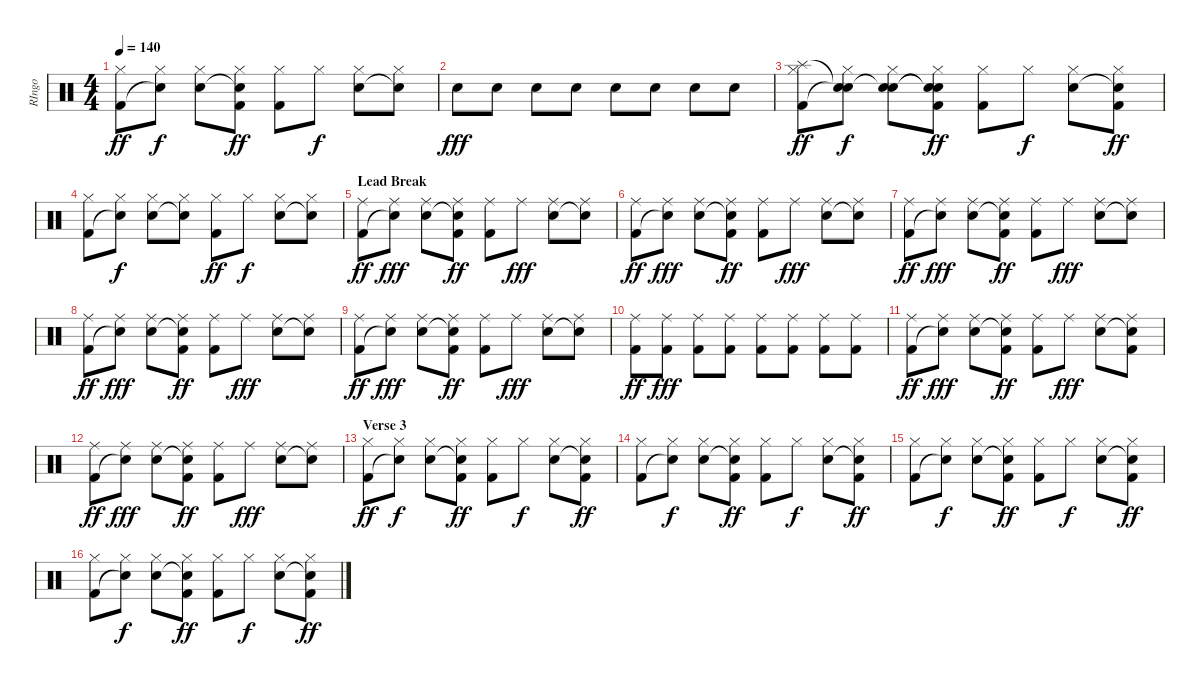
\track ("RIngo" "RIngo") {instrument percussion}
\staff {score}
\articulation defaults
\ts (4 4)
\tempo 140
\clef neutral
\ks c
("Hi-Hat (closed)" "Kick (hit) 2").8{dy ff} ("Hi-Hat (closed)" "Snare (hit)"{t}).8{dy f} ("Hi-Hat (closed)" "Snare (hit) 2").8 ("Hi-Hat (closed)" "Snare (hit)"{t} "Kick (hit) 2").8{dy ff} ("Hi-Hat (closed)" "Kick (hit) 2").8 "Hi-Hat (closed)".8{dy f} ("Hi-Hat (closed)" "Snare (hit) 2").8 ("Hi-Hat (closed)" "Snare (hit)"{t}).8 |
"Snare (hit) 2".8{dy fff} "Snare (hit) 2".8 "Snare (hit) 2".8 "Snare (hit) 2".8 "Snare (hit) 2".8 "Snare (hit) 2".8 "Snare (hit) 2".8 "Snare (hit) 2".8 |
("Splash (hit)" "Hi-Hat (closed)" "Kick (hit) 2").8{dy ff} ("Snare (hit)"{t} "Hi-Hat (closed)" "Snare (hit)"{t}).8{dy f} ("Snare (hit)"{t} "Hi-Hat (closed)" "Snare (hit) 2").8 ("Snare (hit)"{t} "Hi-Hat (closed)" "Snare (hit)"{t} "Kick (hit) 2").8{dy ff} ("Hi-Hat (closed)" "Kick (hit) 2").8 "Hi-Hat (closed)".8{dy f} ("Hi-Hat (closed)" "Snare (hit) 2").8 ("Hi-Hat (closed)" "Snare (hit)"{t} "Kick (hit) 2").8{dy ff} |
("Hi-Hat (closed)" "Kick (hit) 2").8 ("Hi-Hat (closed)" "Snare (hit)"{t}).8{dy f} ("Hi-Hat (closed)" "Snare (hit) 2").8 ("Hi-Hat (closed)" "Snare (hit)"{t}).8 ("Hi-Hat (closed)" "Kick (hit) 2").8{dy ff} "Hi-Hat (closed)".8{dy f} ("Hi-Hat (closed)" "Snare (hit) 2").8 ("Hi-Hat (closed)" "Snare (hit)"{t}).8 |
\section ("" "Lead Break")
("Ride (middle)" "Kick (hit) 2").8{dy ff} ("Ride (middle)" "Snare (hit)"{t}).8{dy fff} ("Ride (middle)" "Snare (hit) 2").8 ("Ride (middle)" "Snare (hit)"{t} "Kick (hit) 2").8{dy ff} ("Ride (middle)" "Kick (hit) 2").8 "Ride (middle)".8{dy fff} ("Ride (middle)" "Snare (hit) 2").8 ("Ride (middle)" "Snare (hit)"{t}).8 |
("Ride (middle)" "Kick (hit) 2").8{dy ff} ("Ride (middle)" "Snare (hit)"{t}).8{dy fff} ("Ride (middle)" "Snare (hit) 2").8 ("Ride (middle)" "Snare (hit)"{t} "Kick (hit) 2").8{dy ff} ("Ride (middle)" "Kick (hit) 2").8 "Ride (middle)".8{dy fff} ("Ride (middle)" "Snare (hit) 2").8 ("Ride (middle)" "Snare (hit)"{t}).8 |
("Ride (middle)" "Kick (hit) 2").8{dy ff} ("Ride (middle)" "Snare (hit)"{t}).8{dy fff} ("Ride (middle)" "Snare (hit) 2").8 ("Ride (middle)" "Snare (hit)"{t} "Kick (hit) 2").8{dy ff} ("Ride (middle)" "Kick (hit) 2").8 "Ride (middle)".8{dy fff} ("Ride (middle)" "Snare (hit) 2").8 ("Ride (middle)" "Snare (hit)"{t}).8 |
("Ride (middle)" "Kick (hit) 2").8{dy ff} ("Ride (middle)" "Snare (hit)"{t}).8{dy fff} ("Ride (middle)" "Snare (hit) 2").8 ("Ride (middle)" "Snare (hit)"{t} "Kick (hit) 2").8{dy ff} ("Ride (middle)" "Kick (hit) 2").8 "Ride (middle)".8{dy fff} ("Ride (middle)" "Snare (hit) 2").8 ("Ride (middle)" "Snare (hit)"{t}).8 |
("Ride (middle)" "Kick (hit) 2").8{dy ff} ("Ride (middle)" "Snare (hit)"{t}).8{dy fff} ("Ride (middle)" "Snare (hit) 2").8 ("Ride (middle)" "Snare (hit)"{t} "Kick (hit) 2").8{dy ff} ("Ride (middle)" "Kick (hit) 2").8 "Ride (middle)".8{dy fff} ("Ride (middle)" "Snare (hit) 2").8 ("Ride (middle)" "Snare (hit)"{t}).8 |
("Ride (middle)" "Kick (hit) 2").8{dy ff} ("Ride (middle)" "Kick (hit) 2").8{dy fff} ("Ride (middle)" "Kick (hit) 2").8 ("Ride (middle)" "Kick (hit) 2").8 ("Ride (middle)" "Kick (hit) 2").8 ("Ride (middle)" "Kick (hit) 2").8 ("Ride (middle)" "Kick (hit) 2").8 ("Ride (middle)" "Kick (hit) 2").8 |
("Ride (middle)" "Kick (hit) 2").8{dy ff} ("Ride (middle)" "Snare (hit)"{t}).8{dy fff} ("Ride (middle)" "Snare (hit) 2").8 ("Ride (middle)" "Snare (hit)"{t} "Kick (hit) 2").8{dy ff} ("Ride (middle)" "Kick (hit) 2").8 "Ride (middle)".8{dy fff} ("Ride (middle)" "Snare (hit) 2").8 ("Ride (middle)" "Snare (hit)"{t} "Kick (hit) 2").8 |
("Ride (middle)" "Kick (hit) 2").8{dy ff} ("Ride (middle)" "Snare (hit)"{t}).8{dy fff} ("Ride (middle)" "Snare (hit) 2").8 ("Ride (middle)" "Snare (hit)"{t} "Kick (hit) 2").8{dy ff} ("Ride (middle)" "Kick (hit) 2").8 "Ride (middle)".8{dy fff} ("Ride (middle)" "Snare (hit) 2").8 ("Ride (middle)" "Snare (hit)"{t}).8 |
\section ("" "Verse 3")
("Hi-Hat (closed)" "Kick (hit) 2").8{dy ff} ("Hi-Hat (closed)" "Snare (hit)"{t}).8{dy f} ("Hi-Hat (closed)" "Snare (hit) 2").8 ("Hi-Hat (closed)" "Snare (hit)"{t} "Kick (hit) 2").8{dy ff} ("Hi-Hat (closed)" "Kick (hit) 2").8 "Hi-Hat (closed)".8{dy f} ("Hi-Hat (closed)" "Snare (hit) 2").8 ("Hi-Hat (closed)" "Snare (hit)"{t} "Kick (hit) 2").8{dy ff} |
("Hi-Hat (closed)" "Kick (hit) 2").8 ("Hi-Hat (closed)" "Snare (hit)"{t}).8{dy f} ("Hi-Hat (closed)" "Snare (hit) 2").8 ("Hi-Hat (closed)" "Snare (hit)"{t} "Kick (hit) 2").8{dy ff} ("Hi-Hat (closed)" "Kick (hit) 2").8 "Hi-Hat (closed)".8{dy f} ("Hi-Hat (closed)" "Snare (hit) 2").8 ("Hi-Hat (closed)" "Snare (hit)"{t} "Kick (hit) 2").8{dy ff} |
("Hi-Hat (closed)" "Kick (hit) 2").8 ("Hi-Hat (closed)" "Snare (hit)"{t}).8{dy f} ("Hi-Hat (closed)" "Snare (hit) 2").8 ("Hi-Hat (closed)" "Snare (hit)"{t} "Kick (hit) 2").8{dy ff} ("Hi-Hat (closed)" "Kick (hit) 2").8 "Hi-Hat (closed)".8{dy f} ("Hi-Hat (closed)" "Snare (hit) 2").8 ("Hi-Hat (closed)" "Snare (hit)"{t} "Kick (hit) 2").8{dy ff} |
("Hi-Hat (closed)" "Kick (hit) 2").8 ("Hi-Hat (closed)" "Snare (hit)"{t}).8{dy f} ("Hi-Hat (closed)" "Snare (hit) 2").8 ("Hi-Hat (closed)" "Snare (hit)"{t} "Kick (hit) 2").8{dy ff} ("Hi-Hat (closed)" "Kick (hit) 2").8 "Hi-Hat (closed)".8{dy f} ("Hi-Hat (closed)" "Snare (hit) 2").8 ("Hi-Hat (closed)" "Snare (hit)"{t} "Kick (hit) 2").8{dy ff}
